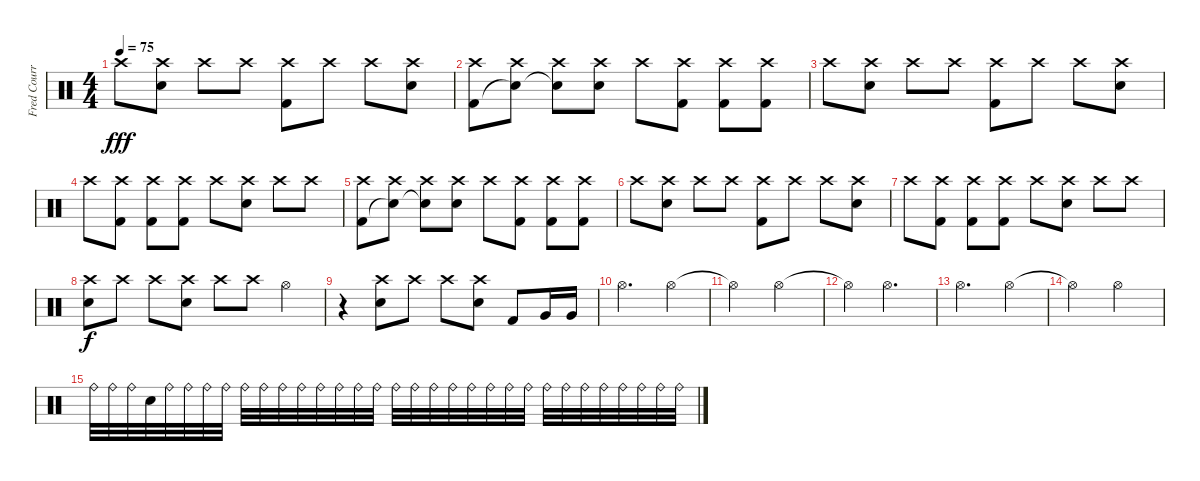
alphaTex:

\track ("Fred Courry" "Fred Courr") {instrument percussion}
\staff {score}
\articulation defaults
\ts (4 4)
\tempo 75
\clef neutral
\ks c "Crash high (hit)".8{dy fff}
("Crash high (hit)" "Snare (hit) 2").8 "Crash high (hit)".8 "Crash high (hit)".8 ("Crash high (hit)" "Kick (hit) 2").8 "Crash high (hit)".8 "Crash high (hit)".8 ("Crash high (hit)" "Snare (hit) 2").8 |
("Crash high (hit)" "Kick (hit) 2").8 ("Crash high (hit)" "Snare (hit)"{t}).8 ("Crash high (hit)" "Snare (hit)"{t}).8 ("Crash high (hit)" "Snare (hit) 2").8 "Crash high (hit)".8 ("Crash high (hit)" "Kick (hit) 2").8 ("Crash high (hit)" "Kick (hit) 2").8 ("Crash high (hit)" "Kick (hit) 2").8 |
"Crash high (hit)".8 ("Crash high (hit)" "Snare (hit) 2").8 "Crash high (hit)".8 "Crash high (hit)".8 ("Crash high (hit)" "Kick (hit) 2").8 "Crash high (hit)".8 "Crash high (hit)".8 ("Crash high (hit)" "Snare (hit) 2").8 |
"Crash high (hit)".8 ("Crash high (hit)" "Kick (hit) 2").8 ("Crash high (hit)" "Kick (hit) 2").8 ("Crash high (hit)" "Kick (hit) 2").8 "Crash high (hit)".8 ("Crash high (hit)" "Snare (hit) 2").8 "Crash high (hit)".8 "Crash high (hit)".8 |
("Crash high (hit)" "Kick (hit) 2").8 ("Crash high (hit)" "Snare (hit)"{t}).8 ("Crash high (hit)" "Snare (hit)"{t}).8 ("Crash high (hit)" "Snare (hit) 2").8 "Crash high (hit)".8 ("Crash high (hit)" "Kick (hit) 2").8 ("Crash high (hit)" "Kick (hit) 2").8 ("Crash high (hit)" "Kick (hit) 2").8 |
"Crash high (hit)".8 ("Crash high (hit)" "Snare (hit) 2").8 "Crash high (hit)".8 "Crash high (hit)".8 ("Crash high (hit)" "Kick (hit) 2").8 "Crash high (hit)".8 "Crash high (hit)".8 ("Crash high (hit)" "Snare (hit) 2").8 |
"Crash high (hit)".8 ("Crash high (hit)" "Kick (hit) 2").8 ("Crash high (hit)" "Kick (hit) 2").8 ("Crash high (hit)" "Kick (hit) 2").8 "Crash high (hit)".8 ("Crash high (hit)" "Snare (hit) 2").8 "Crash high (hit)".8 "Crash high (hit)".8 |
("Snare (hit) 2" "Crash high (hit)").8{dy f} "Crash high (hit)".8 "Crash high (hit)".8 ("Snare (hit) 2" "Crash high (hit)").8 "Crash high (hit)".8 "Crash high (hit)".8 "Hi-Hat (open)".4 |
r.4 ("Snare (hit) 2" "Crash high (hit)").8 "Crash high (hit)".8 "Crash high (hit)".8 ("Snare (hit) 2" "Crash high (hit)").8 "Kick (hit) 2".8 "Very Low Tom (hit)".16 "Very Low Tom (hit)".16 |
"Hi-Hat (open)".2{d} "Hi-Hat (open)".4 |
"Hi-Hat (open)"{t}.2 "Hi-Hat (open)".2 |
"Hi-Hat (open)"{t}.4 "Hi-Hat (open)".2{d} |
"Hi-Hat (open)".2{d} "Hi-Hat (open)".4 |
"Hi-Hat (open)"{t}.2 "Hi-Hat (open)".2 |
"Ride (bell)".32 "Ride (bell)".32 "Ride (bell)".32 "Snare (hit)".32 "Ride (bell)".32 "Ride (bell)".32 "Ride (bell)".32 "Ride (bell)".32 "Ride (bell)".32 "Ride (bell)".32 "Ride (bell)".32 "Ride (bell)".32 "Ride (bell)".32 "Ride (bell)".32 "Ride (bell)".32 "Ride (bell)".32 "Ride (bell)".32 "Ride (bell)".32 "Ride (bell)".32 "Ride (bell)".32 "Ride (bell)".32 "Ride (bell)".32 "Ride (bell)".32 "Ride (bell)".32 "Ride (bell)".32 "Ride (bell)".32 "Ride (bell)".32 "Ride (bell)".32 "Ride (bell)".32 "Ride (bell)".32 "Ride (bell)".32 "Ride (bell)".32
